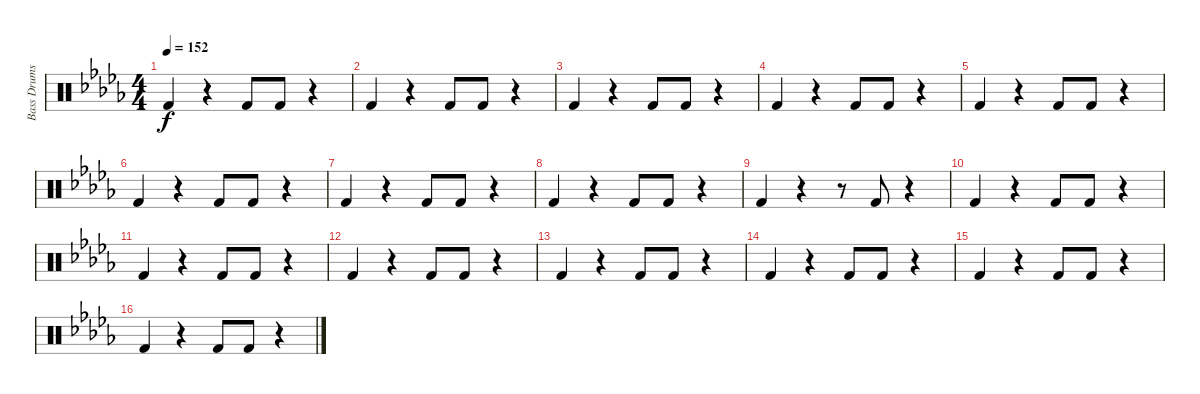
\track ("Bass Drums" "Bass Drums") {instrument percussion}
\staff {score}
\articulation defaults
\ts (4 4)
\tempo 152
\clef neutral
\ks db "Kick (hit) 2".4{dy f}
r.4 "Kick (hit) 2".8 "Kick (hit) 2".8 r.4 |
"Kick (hit) 2".4 r.4 "Kick (hit) 2".8 "Kick (hit) 2".8 r.4 |
"Kick (hit) 2".4 r.4 "Kick (hit) 2".8 "Kick (hit) 2".8 r.4 |
"Kick (hit) 2".4 r.4 "Kick (hit) 2".8 "Kick (hit) 2".8 r.4 |
"Kick (hit) 2".4 r.4 "Kick (hit) 2".8 "Kick (hit) 2".8 r.4 |
"Kick (hit) 2".4 r.4 "Kick (hit) 2".8 "Kick (hit) 2".8 r.4 |
"Kick (hit) 2".4 r.4 "Kick (hit) 2".8 "Kick (hit) 2".8 r.4 |
"Kick (hit) 2".4 r.4 "Kick (hit) 2".8 "Kick (hit) 2".8 r.4 |
"Kick (hit) 2".4 r.4 r.8 "Kick (hit) 2".8 r.4 |
"Kick (hit) 2".4 r.4 "Kick (hit) 2".8 "Kick (hit) 2".8 r.4 |
"Kick (hit) 2".4 r.4 "Kick (hit) 2".8 "Kick (hit) 2".8 r.4 |
"Kick (hit) 2".4 r.4 "Kick (hit) 2".8 "Kick (hit) 2".8 r.4 |
"Kick (hit) 2".4 r.4 "Kick (hit) 2".8 "Kick (hit) 2".8 r.4 |
"Kick (hit) 2".4 r.4 "Kick (hit) 2".8 "Kick (hit) 2".8 r.4 |
"Kick (hit) 2".4 r.4 "Kick (hit) 2".8 "Kick (hit) 2".8 r.4 |
"Kick (hit) 2".4 r.4 "Kick (hit) 2".8 "Kick (hit) 2".8 r.4
